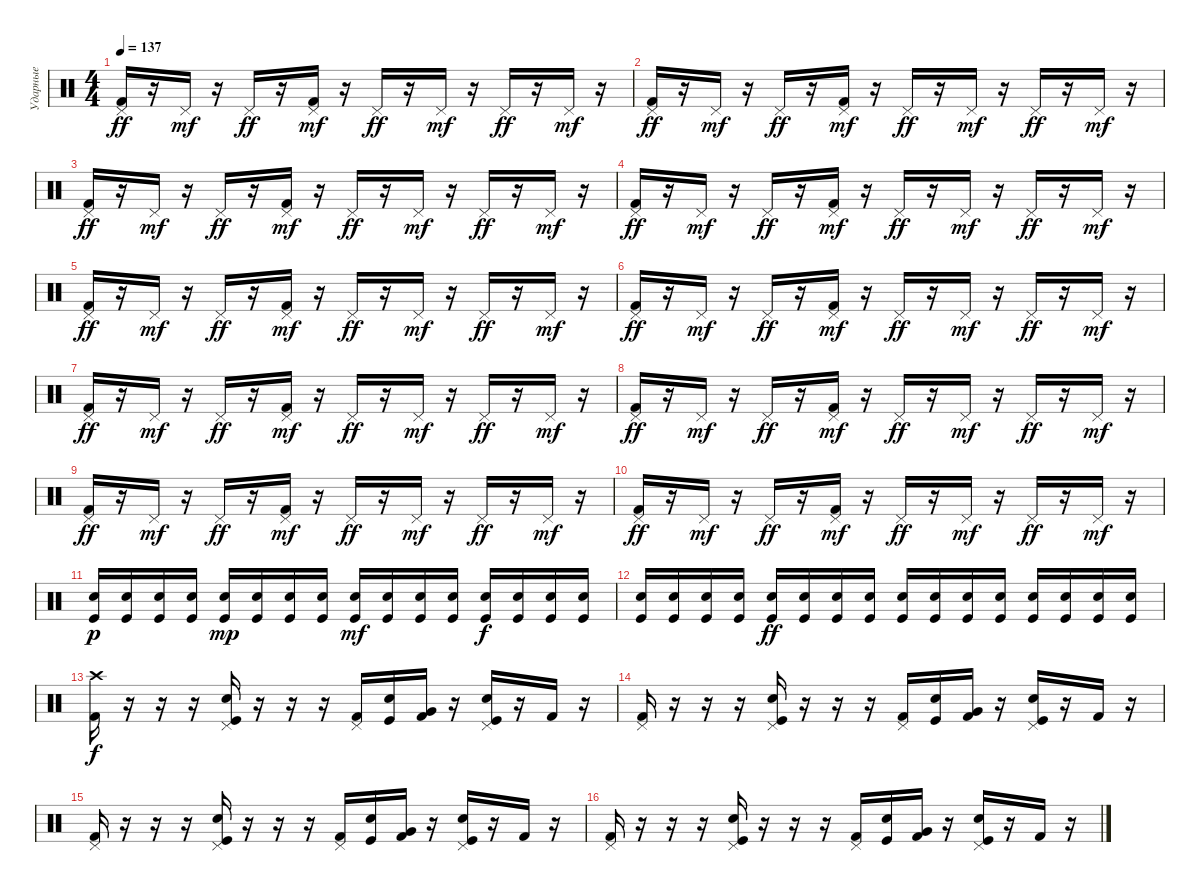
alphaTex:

\track ("Ударные" "Ударные") {instrument percussion}
\staff {score}
\articulation defaults
\ts (4 4)
\tempo 137
\clef neutral
\ks c
("Pedal Hi-Hat (hit)" "Kick (hit) 2").16{dy ff} r.16 "Pedal Hi-Hat (hit)".16{dy mf} r.16 "Pedal Hi-Hat (hit)".16{dy ff} r.16 ("Pedal Hi-Hat (hit)" "Kick (hit) 2").16{dy mf} r.16 "Pedal Hi-Hat (hit)".16{dy ff} r.16 "Pedal Hi-Hat (hit)".16{dy mf} r.16 "Pedal Hi-Hat (hit)".16{dy ff} r.16 "Pedal Hi-Hat (hit)".16{dy mf} r.16 |
("Pedal Hi-Hat (hit)" "Kick (hit) 2").16{dy ff} r.16 "Pedal Hi-Hat (hit)".16{dy mf} r.16 "Pedal Hi-Hat (hit)".16{dy ff} r.16 ("Pedal Hi-Hat (hit)" "Kick (hit) 2").16{dy mf} r.16 "Pedal Hi-Hat (hit)".16{dy ff} r.16 "Pedal Hi-Hat (hit)".16{dy mf} r.16 "Pedal Hi-Hat (hit)".16{dy ff} r.16 "Pedal Hi-Hat (hit)".16{dy mf} r.16 |
("Pedal Hi-Hat (hit)" "Kick (hit) 2").16{dy ff} r.16 "Pedal Hi-Hat (hit)".16{dy mf} r.16 "Pedal Hi-Hat (hit)".16{dy ff} r.16 ("Pedal Hi-Hat (hit)" "Kick (hit) 2").16{dy mf} r.16 "Pedal Hi-Hat (hit)".16{dy ff} r.16 "Pedal Hi-Hat (hit)".16{dy mf} r.16 "Pedal Hi-Hat (hit)".16{dy ff} r.16 "Pedal Hi-Hat (hit)".16{dy mf} r.16 |
("Pedal Hi-Hat (hit)" "Kick (hit) 2").16{dy ff} r.16 "Pedal Hi-Hat (hit)".16{dy mf} r.16 "Pedal Hi-Hat (hit)".16{dy ff} r.16 ("Pedal Hi-Hat (hit)" "Kick (hit) 2").16{dy mf} r.16 "Pedal Hi-Hat (hit)".16{dy ff} r.16 "Pedal Hi-Hat (hit)".16{dy mf} r.16 "Pedal Hi-Hat (hit)".16{dy ff} r.16 "Pedal Hi-Hat (hit)".16{dy mf} r.16 |
("Pedal Hi-Hat (hit)" "Kick (hit) 2").16{dy ff} r.16 "Pedal Hi-Hat (hit)".16{dy mf} r.16 "Pedal Hi-Hat (hit)".16{dy ff} r.16 ("Pedal Hi-Hat (hit)" "Kick (hit) 2").16{dy mf} r.16 "Pedal Hi-Hat (hit)".16{dy ff} r.16 "Pedal Hi-Hat (hit)".16{dy mf} r.16 "Pedal Hi-Hat (hit)".16{dy ff} r.16 "Pedal Hi-Hat (hit)".16{dy mf} r.16 |
("Pedal Hi-Hat (hit)" "Kick (hit) 2").16{dy ff} r.16 "Pedal Hi-Hat (hit)".16{dy mf} r.16 "Pedal Hi-Hat (hit)".16{dy ff} r.16 ("Pedal Hi-Hat (hit)" "Kick (hit) 2").16{dy mf} r.16 "Pedal Hi-Hat (hit)".16{dy ff} r.16 "Pedal Hi-Hat (hit)".16{dy mf} r.16 "Pedal Hi-Hat (hit)".16{dy ff} r.16 "Pedal Hi-Hat (hit)".16{dy mf} r.16 |
("Pedal Hi-Hat (hit)" "Kick (hit) 2").16{dy ff} r.16 "Pedal Hi-Hat (hit)".16{dy mf} r.16 "Pedal Hi-Hat (hit)".16{dy ff} r.16 ("Pedal Hi-Hat (hit)" "Kick (hit) 2").16{dy mf} r.16 "Pedal Hi-Hat (hit)".16{dy ff} r.16 "Pedal Hi-Hat (hit)".16{dy mf} r.16 "Pedal Hi-Hat (hit)".16{dy ff} r.16 "Pedal Hi-Hat (hit)".16{dy mf} r.16 |
("Pedal Hi-Hat (hit)" "Kick (hit) 2").16{dy ff} r.16 "Pedal Hi-Hat (hit)".16{dy mf} r.16 "Pedal Hi-Hat (hit)".16{dy ff} r.16 ("Pedal Hi-Hat (hit)" "Kick (hit) 2").16{dy mf} r.16 "Pedal Hi-Hat (hit)".16{dy ff} r.16 "Pedal Hi-Hat (hit)".16{dy mf} r.16 "Pedal Hi-Hat (hit)".16{dy ff} r.16 "Pedal Hi-Hat (hit)".16{dy mf} r.16 |
("Pedal Hi-Hat (hit)" "Kick (hit) 2").16{dy ff} r.16 "Pedal Hi-Hat (hit)".16{dy mf} r.16 "Pedal Hi-Hat (hit)".16{dy ff} r.16 ("Pedal Hi-Hat (hit)" "Kick (hit) 2").16{dy mf} r.16 "Pedal Hi-Hat (hit)".16{dy ff} r.16 "Pedal Hi-Hat (hit)".16{dy mf} r.16 "Pedal Hi-Hat (hit)".16{dy ff} r.16 "Pedal Hi-Hat (hit)".16{dy mf} r.16 |
("Pedal Hi-Hat (hit)" "Kick (hit) 2").16{dy ff} r.16 "Pedal Hi-Hat (hit)".16{dy mf} r.16 "Pedal Hi-Hat (hit)".16{dy ff} r.16 ("Pedal Hi-Hat (hit)" "Kick (hit) 2").16{dy mf} r.16 "Pedal Hi-Hat (hit)".16{dy ff} r.16 "Pedal Hi-Hat (hit)".16{dy mf} r.16 "Pedal Hi-Hat (hit)".16{dy ff} r.16 "Pedal Hi-Hat (hit)".16{dy mf} r.16 |
("Electric Snare (hit)" "Kick (hit)").16{dy p} ("Electric Snare (hit)" "Kick (hit)").16 ("Electric Snare (hit)" "Kick (hit)").16 ("Electric Snare (hit)" "Kick (hit)").16 ("Electric Snare (hit)" "Kick (hit)").16{dy mp} ("Electric Snare (hit)" "Kick (hit)").16 ("Electric Snare (hit)" "Kick (hit)").16 ("Electric Snare (hit)" "Kick (hit)").16 ("Electric Snare (hit)" "Kick (hit)").16{dy mf} ("Electric Snare (hit)" "Kick (hit)").16 ("Electric Snare (hit)" "Kick (hit)").16 ("Electric Snare (hit)" "Kick (hit)").16 ("Electric Snare (hit)" "Kick (hit)").16{dy f} ("Electric Snare (hit)" "Kick (hit)").16 ("Electric Snare (hit)" "Kick (hit)").16 ("Electric Snare (hit)" "Kick (hit)").16 |
("Electric Snare (hit)" "Kick (hit)").16 ("Electric Snare (hit)" "Kick (hit)").16 ("Electric Snare (hit)" "Kick (hit)").16 ("Electric Snare (hit)" "Kick (hit)").16 ("Electric Snare (hit)" "Kick (hit)").16{dy ff} ("Electric Snare (hit)" "Kick (hit)").16 ("Electric Snare (hit)" "Kick (hit)").16 ("Electric Snare (hit)" "Kick (hit)").16 ("Electric Snare (hit)" "Kick (hit)").16 ("Electric Snare (hit)" "Kick (hit)").16 ("Electric Snare (hit)" "Kick (hit)").16 ("Electric Snare (hit)" "Kick (hit)").16 ("Electric Snare (hit)" "Kick (hit)").16 ("Electric Snare (hit)" "Kick (hit)").16 ("Electric Snare (hit)" "Kick (hit)").16 ("Electric Snare (hit)" "Kick (hit)").16 |
("Crash high (hit)" "Kick (hit) 2").16{dy f} r.16 r.16 r.16 ("Pedal Hi-Hat (hit)" "Electric Snare (hit)" "Kick (hit)").16 r.16 r.16 r.16 ("Pedal Hi-Hat (hit)" "Kick (hit) 2").16 ("Electric Snare (hit)" "Kick (hit)").16 ("Very Low Tom (hit)" "Kick (hit) 2").16 r.16 ("Pedal Hi-Hat (hit)" "Electric Snare (hit)" "Kick (hit)").16 r.16 "Kick (hit) 2".16 r.16 |
("Pedal Hi-Hat (hit)" "Kick (hit) 2").16 r.16 r.16 r.16 ("Pedal Hi-Hat (hit)" "Electric Snare (hit)" "Kick (hit)").16 r.16 r.16 r.16 ("Pedal Hi-Hat (hit)" "Kick (hit) 2").16 ("Electric Snare (hit)" "Kick (hit)").16 ("Very Low Tom (hit)" "Kick (hit) 2").16 r.16 ("Pedal Hi-Hat (hit)" "Electric Snare (hit)" "Kick (hit)").16 r.16 "Kick (hit) 2".16 r.16 |
("Pedal Hi-Hat (hit)" "Kick (hit) 2").16 r.16 r.16 r.16 ("Pedal Hi-Hat (hit)" "Electric Snare (hit)" "Kick (hit)").16 r.16 r.16 r.16 ("Pedal Hi-Hat (hit)" "Kick (hit) 2").16 ("Electric Snare (hit)" "Kick (hit)").16 ("Very Low Tom (hit)" "Kick (hit) 2").16 r.16 ("Pedal Hi-Hat (hit)" "Electric Snare (hit)" "Kick (hit)").16 r.16 "Kick (hit) 2".16 r.16 |
("Pedal Hi-Hat (hit)" "Kick (hit) 2").16 r.16 r.16 r.16 ("Pedal Hi-Hat (hit)" "Electric Snare (hit)" "Kick (hit)").16 r.16 r.16 r.16 ("Pedal Hi-Hat (hit)" "Kick (hit) 2").16 ("Electric Snare (hit)" "Kick (hit)").16 ("Very Low Tom (hit)" "Kick (hit) 2").16 r.16 ("Pedal Hi-Hat (hit)" "Electric Snare (hit)" "Kick (hit)").16 r.16 "Kick (hit) 2".16 r.16
